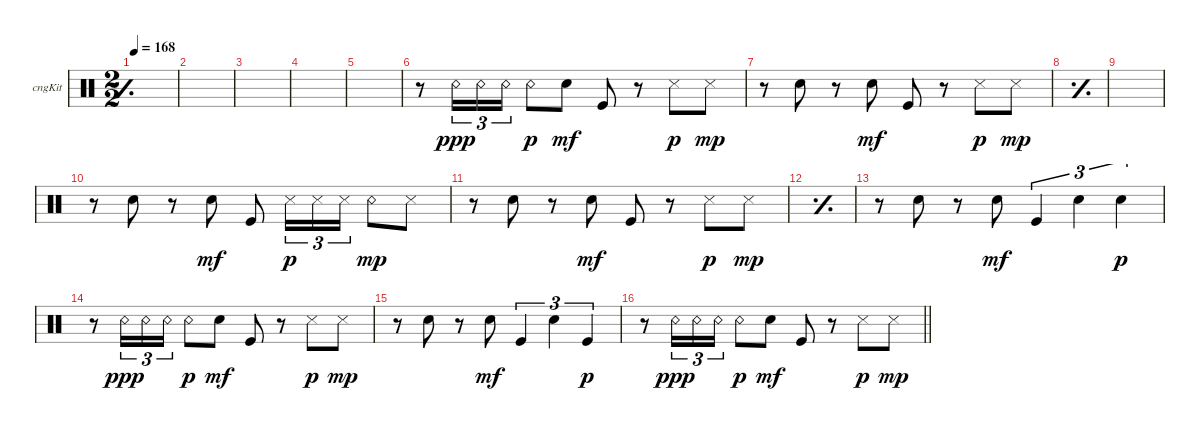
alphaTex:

\bracketExtendMode groupsimilarinstruments
\multiTrackTrackNamePolicy hidden
\firstSystemTrackNameOrientation horizontal
\otherSystemsTrackNameOrientation horizontal
\track ("Congas" "cngKit") {instrument percussion}
\staff {score}
\articulation defaults
\ts (2 2)
\tempo 168
\clef neutral
\simile simple
\ks c
|
|
|
|
|
r.8 "Snare (rim shot)".16{tu (3 2) dy ppp} "Snare (rim shot)".16{tu (3 2)} "Snare (rim shot)".16{tu (3 2)} "Snare (rim shot)".8{dy p} "Snare (hit) 2".8{dy mf} "Kick (hit)".8 r.8 "Snare (side stick) 3".8{dy p} "Snare (side stick) 3".8{dy mp} |
r.8 "Snare (hit) 2".8 r.8 "Snare (hit) 2".8{dy mf} "Kick (hit)".8 r.8 "Snare (side stick) 3".8{dy p} "Snare (side stick) 3".8{dy mp} |
\simile simple
|
|
\simile none
r.8 "Snare (hit) 2".8 r.8 "Snare (hit) 2".8{dy mf} "Kick (hit)".8 "Snare (side stick) 3".16{tu (3 2) dy p} "Snare (side stick) 3".16{tu (3 2)} "Snare (side stick) 3".16{tu (3 2)} "Snare (rim shot)".8{dy mp} "Snare (side stick) 3".8 |
r.8 "Snare (hit) 2".8 r.8 "Snare (hit) 2".8{dy mf} "Kick (hit)".8 r.8 "Snare (side stick) 3".8{dy p} "Snare (side stick) 3".8{dy mp} |
\simile simple
|
\simile none
r.8 "Snare (hit) 2".8 r.8 "Snare (hit) 2".8{dy mf} "Kick (hit)".4{tu (3 2)} "Snare (hit) 2".4{tu (3 2)} "Snare (hit) 2".4{tu (3 2) dy p} |
r.8 "Snare (rim shot)".16{tu (3 2) dy ppp} "Snare (rim shot)".16{tu (3 2)} "Snare (rim shot)".16{tu (3 2)} "Snare (rim shot)".8{dy p} "Snare (hit) 2".8{dy mf} "Kick (hit)".8 r.8 "Snare (side stick) 3".8{dy p} "Snare (side stick) 3".8{dy mp} |
r.8 "Snare (hit) 2".8 r.8 "Snare (hit) 2".8{dy mf} "Kick (hit)".4{tu (3 2)} "Snare (hit) 2".4{tu (3 2)} "Kick (hit)".4{tu (3 2) dy p} |
\barLineRight lightlight
r.8 "Snare (rim shot)".16{tu (3 2) dy ppp} "Snare (rim shot)".16{tu (3 2)} "Snare (rim shot)".16{tu (3 2)} "Snare (rim shot)".8{dy p} "Snare (hit) 2".8{dy mf} "Kick (hit)".8 r.8 "Snare (side stick) 3".8{dy p} "Snare (side stick) 3".8{dy mp}
